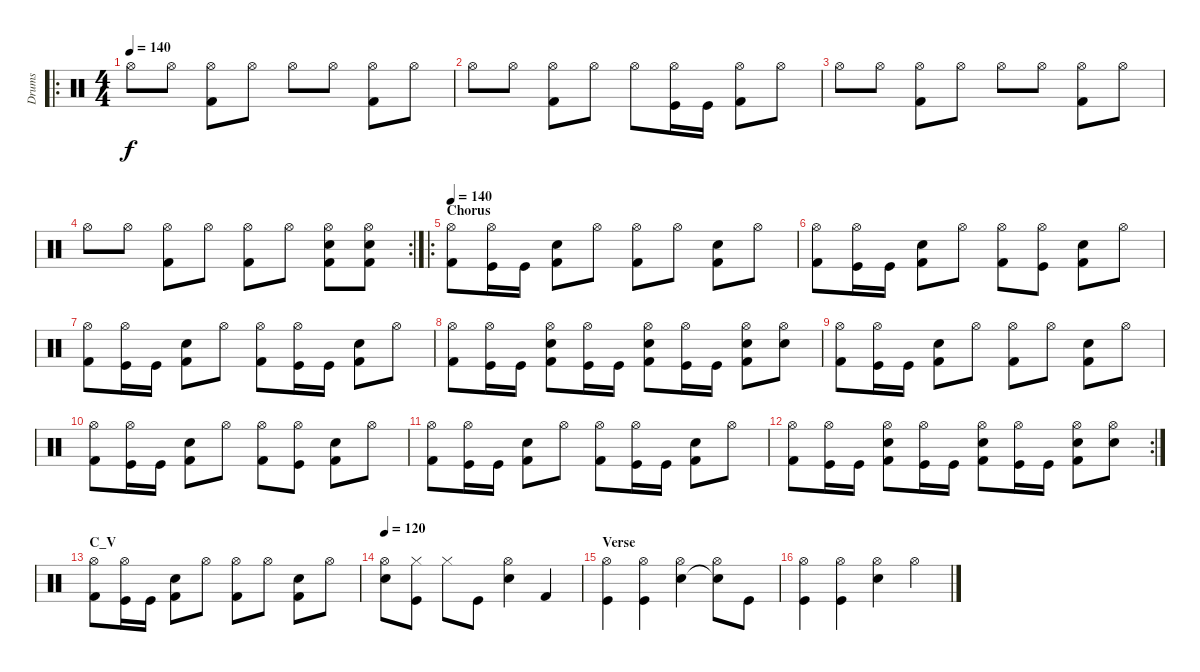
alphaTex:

\track ("Drums" "Drums") {instrument percussion}
\staff {score}
\articulation defaults
\ro
\ts (4 4)
\tempo 140
\clef neutral
\ks c "Hi-Hat (open)".8{dy f} "Hi-Hat (open)".8
("Kick (hit) 2" "Hi-Hat (open)").8 "Hi-Hat (open)".8 "Hi-Hat (open)".8 "Hi-Hat (open)".8 ("Kick (hit) 2" "Hi-Hat (open)").8 "Hi-Hat (open)".8 |
"Hi-Hat (open)".8 "Hi-Hat (open)".8 ("Kick (hit) 2" "Hi-Hat (open)").8 "Hi-Hat (open)".8 "Hi-Hat (open)".8 ("Hi-Hat (open)" "Kick (hit)").16 "Kick (hit)".16 ("Kick (hit) 2" "Hi-Hat (open)").8 "Hi-Hat (open)".8 |
"Hi-Hat (open)".8 "Hi-Hat (open)".8 ("Kick (hit) 2" "Hi-Hat (open)").8 "Hi-Hat (open)".8 "Hi-Hat (open)".8 "Hi-Hat (open)".8 ("Kick (hit) 2" "Hi-Hat (open)").8 "Hi-Hat (open)".8 |
\rc 2 "Hi-Hat (open)".8 "Hi-Hat (open)".8
("Kick (hit) 2" "Hi-Hat (open)").8 "Hi-Hat (open)".8 ("Kick (hit) 2" "Hi-Hat (open)").8 "Hi-Hat (open)".8 ("Kick (hit) 2" "Hi-Hat (open)" "Electric Snare (hit)").8 ("Kick (hit) 2" "Hi-Hat (open)" "Electric Snare (hit)").8 |
\ro
\section ("" "Chorus")
\tempo 140
("Hi-Hat (open)" "Kick (hit) 2").8 ("Hi-Hat (open)" "Kick (hit)").16 "Kick (hit)".16 ("Electric Snare (hit)" "Kick (hit) 2").8 "Hi-Hat (open)".8 ("Hi-Hat (open)" "Kick (hit) 2").8 "Hi-Hat (open)".8 ("Electric Snare (hit)" "Kick (hit) 2").8 "Hi-Hat (open)".8 |
("Hi-Hat (open)" "Kick (hit) 2").8 ("Hi-Hat (open)" "Kick (hit)").16 "Kick (hit)".16 ("Electric Snare (hit)" "Kick (hit) 2").8 "Hi-Hat (open)".8 ("Hi-Hat (open)" "Kick (hit) 2").8 ("Hi-Hat (open)" "Kick (hit)").8 ("Electric Snare (hit)" "Kick (hit) 2").8 "Hi-Hat (open)".8 |
("Hi-Hat (open)" "Kick (hit) 2").8 ("Hi-Hat (open)" "Kick (hit)").16 "Kick (hit)".16 ("Electric Snare (hit)" "Kick (hit) 2").8 "Hi-Hat (open)".8 ("Hi-Hat (open)" "Kick (hit) 2").8 ("Hi-Hat (open)" "Kick (hit)").16 "Kick (hit)".16 ("Electric Snare (hit)" "Kick (hit) 2").8 "Hi-Hat (open)".8 |
("Hi-Hat (open)" "Kick (hit) 2").8 ("Hi-Hat (open)" "Kick (hit)").16 "Kick (hit)".16 ("Electric Snare (hit)" "Hi-Hat (open)" "Kick (hit) 2").8 ("Hi-Hat (open)" "Kick (hit)").16 "Kick (hit)".16 ("Electric Snare (hit)" "Hi-Hat (open)" "Kick (hit) 2").8 ("Hi-Hat (open)" "Kick (hit)").16 "Kick (hit)".16 ("Electric Snare (hit)" "Hi-Hat (open)" "Kick (hit) 2").8 ("Electric Snare (hit)" "Hi-Hat (open)").8 |
("Hi-Hat (open)" "Kick (hit) 2").8 ("Hi-Hat (open)" "Kick (hit)").16 "Kick (hit)".16 ("Electric Snare (hit)" "Kick (hit) 2").8 "Hi-Hat (open)".8 ("Hi-Hat (open)" "Kick (hit) 2").8 "Hi-Hat (open)".8 ("Electric Snare (hit)" "Kick (hit) 2").8 "Hi-Hat (open)".8 |
("Hi-Hat (open)" "Kick (hit) 2").8 ("Hi-Hat (open)" "Kick (hit)").16 "Kick (hit)".16 ("Electric Snare (hit)" "Kick (hit) 2").8 "Hi-Hat (open)".8 ("Hi-Hat (open)" "Kick (hit) 2").8 ("Hi-Hat (open)" "Kick (hit)").8 ("Electric Snare (hit)" "Kick (hit) 2").8 "Hi-Hat (open)".8 |
("Hi-Hat (open)" "Kick (hit) 2").8 ("Hi-Hat (open)" "Kick (hit)").16 "Kick (hit)".16 ("Electric Snare (hit)" "Kick (hit) 2").8 "Hi-Hat (open)".8 ("Hi-Hat (open)" "Kick (hit) 2").8 ("Hi-Hat (open)" "Kick (hit)").16 "Kick (hit)".16 ("Electric Snare (hit)" "Kick (hit) 2").8 "Hi-Hat (open)".8 |
\rc 2
("Hi-Hat (open)" "Kick (hit) 2").8 ("Hi-Hat (open)" "Kick (hit)").16 "Kick (hit)".16 ("Electric Snare (hit)" "Hi-Hat (open)" "Kick (hit) 2").8 ("Hi-Hat (open)" "Kick (hit)").16 "Kick (hit)".16 ("Electric Snare (hit)" "Hi-Hat (open)" "Kick (hit) 2").8 ("Hi-Hat (open)" "Kick (hit)").16 "Kick (hit)".16 ("Electric Snare (hit)" "Hi-Hat (open)" "Kick (hit) 2").8 ("Electric Snare (hit)" "Hi-Hat (open)").8 |
\section ("" "C_V")
("Hi-Hat (open)" "Kick (hit) 2").8 ("Hi-Hat (open)" "Kick (hit)").16 "Kick (hit)".16 ("Electric Snare (hit)" "Kick (hit) 2").8 "Hi-Hat (open)".8 ("Hi-Hat (open)" "Kick (hit) 2").8 "Hi-Hat (open)".8 ("Electric Snare (hit)" "Kick (hit) 2").8 "Hi-Hat (open)".8 |
\tempo 120
("Hi-Hat (open)" "Electric Snare (hit)").8 ("Hi-Hat (closed)" "Kick (hit)").8 "Hi-Hat (closed)".8 "Kick (hit)".8 ("Hi-Hat (open)" "Electric Snare (hit)").4 "Kick (hit) 2".4 |
\section ("" "Verse")
("Hi-Hat (open)" "Kick (hit)").4 ("Hi-Hat (open)" "Kick (hit)").4 ("Hi-Hat (open)" "Electric Snare (hit)").4 ("Hi-Hat (open)" "Snare (hit)"{t}).8 "Kick (hit)".8 |
("Hi-Hat (open)" "Kick (hit)").4 ("Hi-Hat (open)" "Kick (hit)").4 ("Hi-Hat (open)" "Electric Snare (hit)").4 "Hi-Hat (open)".4
